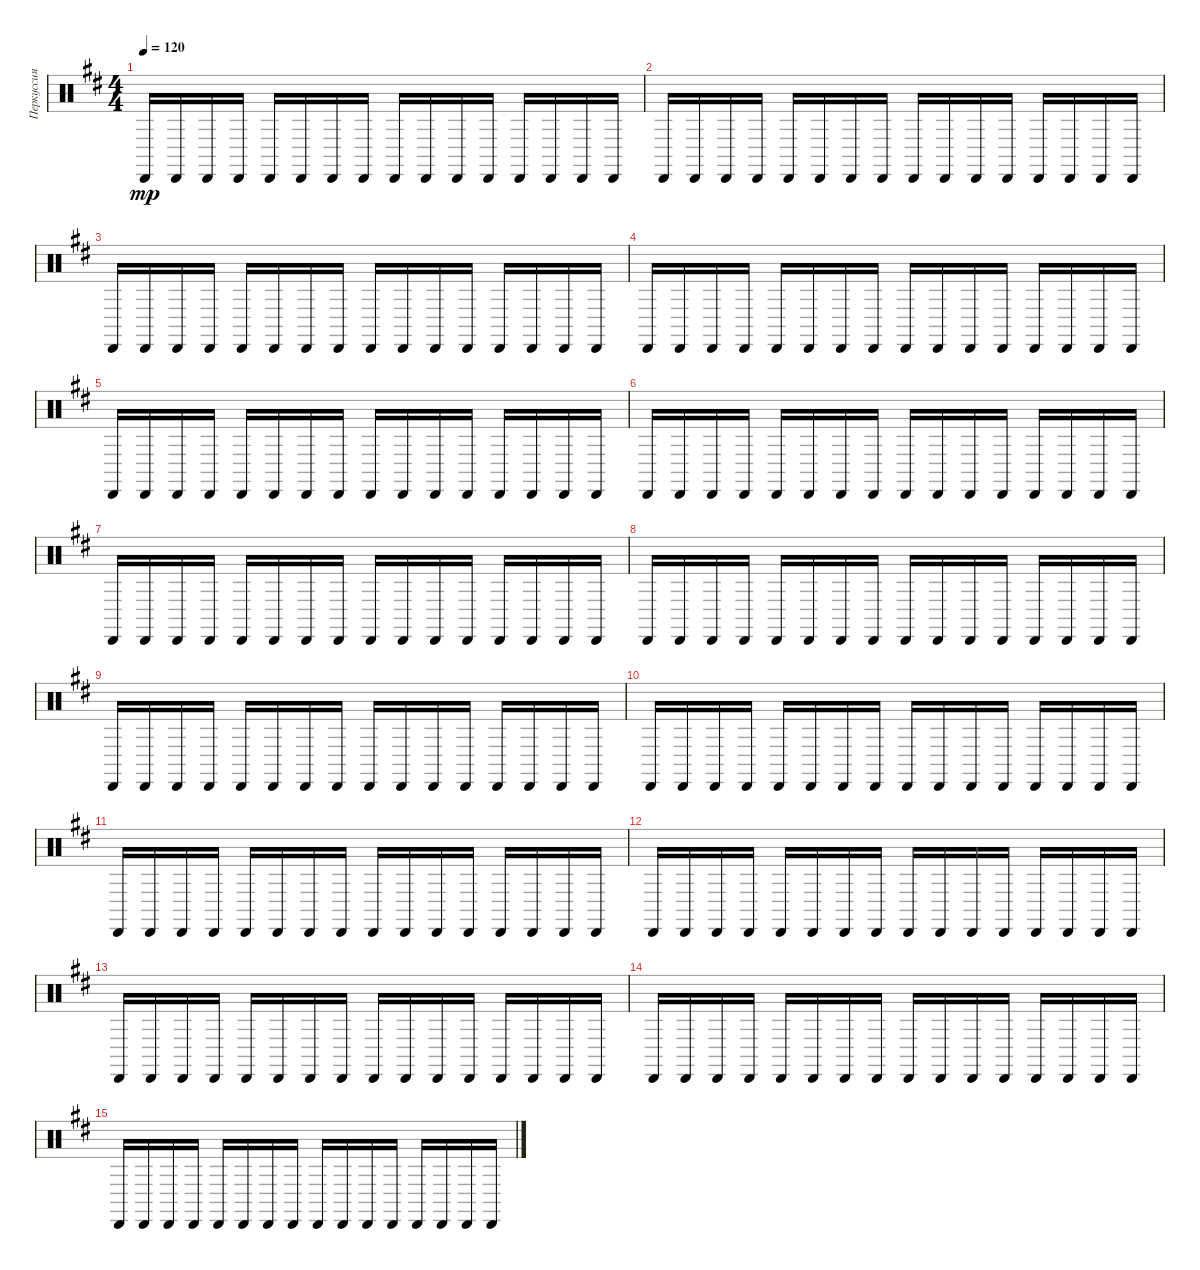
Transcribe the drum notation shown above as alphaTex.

\track ("Перкуссия" "Перкуссия") {instrument percussion}
\staff {score}
\articulation defaults
\ts (4 4)
\tempo 120
\clef neutral
\ks bminor "Cabasa (hit)".16{dy mp} "Cabasa (hit)".16 "Cabasa (hit)".16 "Cabasa (hit)".16 "Cabasa (hit)".16 "Cabasa (hit)".16 "Cabasa (hit)".16 "Cabasa (hit)".16 "Cabasa (hit)".16 "Cabasa (hit)".16 "Cabasa (hit)".16 "Cabasa (hit)".16 "Cabasa (hit)".16 "Cabasa (hit)".16 "Cabasa (hit)".16 "Cabasa (hit)".16
|
"Cabasa (hit)".16 "Cabasa (hit)".16 "Cabasa (hit)".16 "Cabasa (hit)".16 "Cabasa (hit)".16 "Cabasa (hit)".16 "Cabasa (hit)".16 "Cabasa (hit)".16 "Cabasa (hit)".16 "Cabasa (hit)".16 "Cabasa (hit)".16 "Cabasa (hit)".16 "Cabasa (hit)".16 "Cabasa (hit)".16 "Cabasa (hit)".16 "Cabasa (hit)".16 |
"Cabasa (hit)".16 "Cabasa (hit)".16 "Cabasa (hit)".16 "Cabasa (hit)".16 "Cabasa (hit)".16 "Cabasa (hit)".16 "Cabasa (hit)".16 "Cabasa (hit)".16 "Cabasa (hit)".16 "Cabasa (hit)".16 "Cabasa (hit)".16 "Cabasa (hit)".16 "Cabasa (hit)".16 "Cabasa (hit)".16 "Cabasa (hit)".16 "Cabasa (hit)".16 |
"Cabasa (hit)".16 "Cabasa (hit)".16 "Cabasa (hit)".16 "Cabasa (hit)".16 "Cabasa (hit)".16 "Cabasa (hit)".16 "Cabasa (hit)".16 "Cabasa (hit)".16 "Cabasa (hit)".16 "Cabasa (hit)".16 "Cabasa (hit)".16 "Cabasa (hit)".16 "Cabasa (hit)".16 "Cabasa (hit)".16 "Cabasa (hit)".16 "Cabasa (hit)".16 |
"Cabasa (hit)".16 "Cabasa (hit)".16 "Cabasa (hit)".16 "Cabasa (hit)".16 "Cabasa (hit)".16 "Cabasa (hit)".16 "Cabasa (hit)".16 "Cabasa (hit)".16 "Cabasa (hit)".16 "Cabasa (hit)".16 "Cabasa (hit)".16 "Cabasa (hit)".16 "Cabasa (hit)".16 "Cabasa (hit)".16 "Cabasa (hit)".16 "Cabasa (hit)".16 |
"Cabasa (hit)".16 "Cabasa (hit)".16 "Cabasa (hit)".16 "Cabasa (hit)".16 "Cabasa (hit)".16 "Cabasa (hit)".16 "Cabasa (hit)".16 "Cabasa (hit)".16 "Cabasa (hit)".16 "Cabasa (hit)".16 "Cabasa (hit)".16 "Cabasa (hit)".16 "Cabasa (hit)".16 "Cabasa (hit)".16 "Cabasa (hit)".16 "Cabasa (hit)".16 |
"Cabasa (hit)".16 "Cabasa (hit)".16 "Cabasa (hit)".16 "Cabasa (hit)".16 "Cabasa (hit)".16 "Cabasa (hit)".16 "Cabasa (hit)".16 "Cabasa (hit)".16 "Cabasa (hit)".16 "Cabasa (hit)".16 "Cabasa (hit)".16 "Cabasa (hit)".16 "Cabasa (hit)".16 "Cabasa (hit)".16 "Cabasa (hit)".16 "Cabasa (hit)".16 |
\ks d "Cabasa (hit)".16 "Cabasa (hit)".16 "Cabasa (hit)".16 "Cabasa (hit)".16 "Cabasa (hit)".16 "Cabasa (hit)".16 "Cabasa (hit)".16 "Cabasa (hit)".16 "Cabasa (hit)".16 "Cabasa (hit)".16 "Cabasa (hit)".16 "Cabasa (hit)".16 "Cabasa (hit)".16 "Cabasa (hit)".16 "Cabasa (hit)".16 "Cabasa (hit)".16
|
\ks bminor "Cabasa (hit)".16 "Cabasa (hit)".16 "Cabasa (hit)".16 "Cabasa (hit)".16 "Cabasa (hit)".16 "Cabasa (hit)".16 "Cabasa (hit)".16 "Cabasa (hit)".16 "Cabasa (hit)".16 "Cabasa (hit)".16 "Cabasa (hit)".16 "Cabasa (hit)".16 "Cabasa (hit)".16 "Cabasa (hit)".16 "Cabasa (hit)".16 "Cabasa (hit)".16
|
"Cabasa (hit)".16 "Cabasa (hit)".16 "Cabasa (hit)".16 "Cabasa (hit)".16 "Cabasa (hit)".16 "Cabasa (hit)".16 "Cabasa (hit)".16 "Cabasa (hit)".16 "Cabasa (hit)".16 "Cabasa (hit)".16 "Cabasa (hit)".16 "Cabasa (hit)".16 "Cabasa (hit)".16 "Cabasa (hit)".16 "Cabasa (hit)".16 "Cabasa (hit)".16 |
"Cabasa (hit)".16 "Cabasa (hit)".16 "Cabasa (hit)".16 "Cabasa (hit)".16 "Cabasa (hit)".16 "Cabasa (hit)".16 "Cabasa (hit)".16 "Cabasa (hit)".16 "Cabasa (hit)".16 "Cabasa (hit)".16 "Cabasa (hit)".16 "Cabasa (hit)".16 "Cabasa (hit)".16 "Cabasa (hit)".16 "Cabasa (hit)".16 "Cabasa (hit)".16 |
"Cabasa (hit)".16 "Cabasa (hit)".16 "Cabasa (hit)".16 "Cabasa (hit)".16 "Cabasa (hit)".16 "Cabasa (hit)".16 "Cabasa (hit)".16 "Cabasa (hit)".16 "Cabasa (hit)".16 "Cabasa (hit)".16 "Cabasa (hit)".16 "Cabasa (hit)".16 "Cabasa (hit)".16 "Cabasa (hit)".16 "Cabasa (hit)".16 "Cabasa (hit)".16 |
"Cabasa (hit)".16 "Cabasa (hit)".16 "Cabasa (hit)".16 "Cabasa (hit)".16 "Cabasa (hit)".16 "Cabasa (hit)".16 "Cabasa (hit)".16 "Cabasa (hit)".16 "Cabasa (hit)".16 "Cabasa (hit)".16 "Cabasa (hit)".16 "Cabasa (hit)".16 "Cabasa (hit)".16 "Cabasa (hit)".16 "Cabasa (hit)".16 "Cabasa (hit)".16 |
"Cabasa (hit)".16 "Cabasa (hit)".16 "Cabasa (hit)".16 "Cabasa (hit)".16 "Cabasa (hit)".16 "Cabasa (hit)".16 "Cabasa (hit)".16 "Cabasa (hit)".16 "Cabasa (hit)".16 "Cabasa (hit)".16 "Cabasa (hit)".16 "Cabasa (hit)".16 "Cabasa (hit)".16 "Cabasa (hit)".16 "Cabasa (hit)".16 "Cabasa (hit)".16 |
"Cabasa (hit)".16 "Cabasa (hit)".16 "Cabasa (hit)".16 "Cabasa (hit)".16 "Cabasa (hit)".16 "Cabasa (hit)".16 "Cabasa (hit)".16 "Cabasa (hit)".16 "Cabasa (hit)".16 "Cabasa (hit)".16 "Cabasa (hit)".16 "Cabasa (hit)".16 "Cabasa (hit)".16 "Cabasa (hit)".16 "Cabasa (hit)".16 "Cabasa (hit)".16
